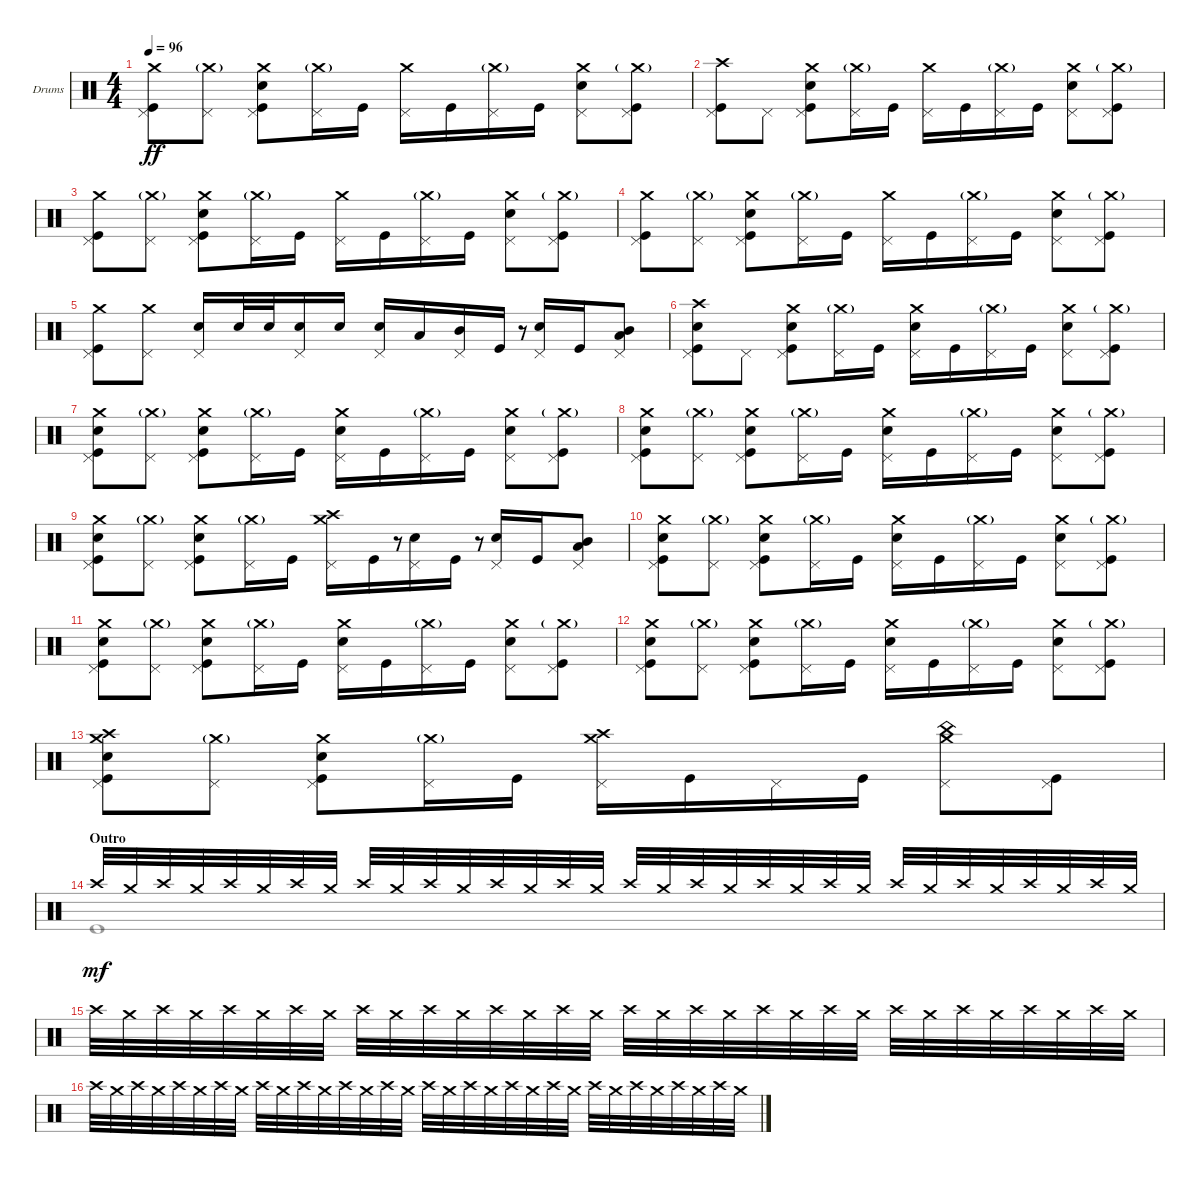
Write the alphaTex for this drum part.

\defaultSystemsLayout 4
\bracketExtendMode groupsimilarinstruments
\firstSystemTrackNameOrientation horizontal
\otherSystemsTrackNameOrientation horizontal
\track ("Howard" "Drums") {instrument percussion}
\staff {score}
\articulation defaults
\voice
\ts (4 4)
\tempo 96
\clef neutral
\ks c
("Pedal Hi-Hat (hit)" "Kick (hit)" "Crash medium (hit)").8{dy ff} ("Pedal Hi-Hat (hit)" "Crash medium (hit)"{g}).8 ("Pedal Hi-Hat (hit)" "Snare (hit) 2" "Kick (hit)" "Crash medium (hit)").8 ("Pedal Hi-Hat (hit)" "Crash medium (hit)"{g}).16 "Kick (hit)".16 ("Pedal Hi-Hat (hit)" "Crash medium (hit)").16 "Kick (hit)".16 ("Pedal Hi-Hat (hit)" "Crash medium (hit)"{g}).16 "Kick (hit)".16 ("Pedal Hi-Hat (hit)" "Snare (hit) 2" "Crash medium (hit)").8 ("Pedal Hi-Hat (hit)" "Crash medium (hit)"{g} "Kick (hit)").8 |
("Pedal Hi-Hat (hit)" "Kick (hit)" "Crash high (hit)").8 "Pedal Hi-Hat (hit)".8 ("Pedal Hi-Hat (hit)" "Snare (hit) 2" "Kick (hit)" "Crash medium (hit)").8 ("Pedal Hi-Hat (hit)" "Crash medium (hit)"{g}).16 "Kick (hit)".16 ("Pedal Hi-Hat (hit)" "Crash medium (hit)").16 "Kick (hit)".16 ("Pedal Hi-Hat (hit)" "Crash medium (hit)"{g}).16 "Kick (hit)".16 ("Pedal Hi-Hat (hit)" "Snare (hit) 2" "Crash medium (hit)").8 ("Pedal Hi-Hat (hit)" "Crash medium (hit)"{g} "Kick (hit)").8 |
("Pedal Hi-Hat (hit)" "Kick (hit)" "Crash medium (hit)").8 ("Pedal Hi-Hat (hit)" "Crash medium (hit)"{g}).8 ("Pedal Hi-Hat (hit)" "Snare (hit) 2" "Kick (hit)" "Crash medium (hit)").8 ("Pedal Hi-Hat (hit)" "Crash medium (hit)"{g}).16 "Kick (hit)".16 ("Pedal Hi-Hat (hit)" "Crash medium (hit)").16 "Kick (hit)".16 ("Pedal Hi-Hat (hit)" "Crash medium (hit)"{g}).16 "Kick (hit)".16 ("Pedal Hi-Hat (hit)" "Snare (hit) 2" "Crash medium (hit)").8 ("Pedal Hi-Hat (hit)" "Crash medium (hit)"{g} "Kick (hit)").8 |
("Pedal Hi-Hat (hit)" "Kick (hit)" "Crash medium (hit)").8 ("Pedal Hi-Hat (hit)" "Crash medium (hit)"{g}).8 ("Pedal Hi-Hat (hit)" "Snare (hit) 2" "Kick (hit)" "Crash medium (hit)").8 ("Pedal Hi-Hat (hit)" "Crash medium (hit)"{g}).16 "Kick (hit)".16 ("Pedal Hi-Hat (hit)" "Crash medium (hit)").16 "Kick (hit)".16 ("Pedal Hi-Hat (hit)" "Crash medium (hit)"{g}).16 "Kick (hit)".16 ("Pedal Hi-Hat (hit)" "Snare (hit) 2" "Crash medium (hit)").8 ("Pedal Hi-Hat (hit)" "Crash medium (hit)"{g} "Kick (hit)").8 |
("Crash medium (hit)" "Pedal Hi-Hat (hit)" "Kick (hit)").8 ("Pedal Hi-Hat (hit)" "Crash medium (hit)").8 ("Snare (hit) 2" "Pedal Hi-Hat (hit)").16 "Snare (hit) 2".32 "Snare (hit) 2".32 ("Snare (hit) 2" "Pedal Hi-Hat (hit)").16 "Snare (hit) 2".16 ("Snare (hit) 2" "Pedal Hi-Hat (hit)").16 "Low Tom (hit)".16 ("Mid Tom (hit)" "Pedal Hi-Hat (hit)").16 "Kick (hit)".16 r.8{gr} ("Snare (hit) 2" "Pedal Hi-Hat (hit)").16 "Kick (hit)".16 ("Low Tom (hit)" "Mid Tom (hit)" "Pedal Hi-Hat (hit)").8 |
("Pedal Hi-Hat (hit)" "Kick (hit)" "Crash high (hit)" "Snare (hit) 2").8 "Pedal Hi-Hat (hit)".8 ("Pedal Hi-Hat (hit)" "Snare (hit) 2" "Kick (hit)" "Crash medium (hit)").8 ("Pedal Hi-Hat (hit)" "Crash medium (hit)"{g}).16 "Kick (hit)".16 ("Pedal Hi-Hat (hit)" "Crash medium (hit)" "Snare (hit) 2").16 "Kick (hit)".16 ("Pedal Hi-Hat (hit)" "Crash medium (hit)"{g}).16 "Kick (hit)".16 ("Pedal Hi-Hat (hit)" "Snare (hit) 2" "Crash medium (hit)").8 ("Pedal Hi-Hat (hit)" "Crash medium (hit)"{g} "Kick (hit)").8 |
("Pedal Hi-Hat (hit)" "Kick (hit)" "Snare (hit) 2" "Crash medium (hit)").8 ("Pedal Hi-Hat (hit)" "Crash medium (hit)"{g}).8 ("Pedal Hi-Hat (hit)" "Snare (hit) 2" "Kick (hit)" "Crash medium (hit)").8 ("Pedal Hi-Hat (hit)" "Crash medium (hit)"{g}).16 "Kick (hit)".16 ("Pedal Hi-Hat (hit)" "Crash medium (hit)" "Snare (hit) 2").16 "Kick (hit)".16 ("Pedal Hi-Hat (hit)" "Crash medium (hit)"{g}).16 "Kick (hit)".16 ("Pedal Hi-Hat (hit)" "Snare (hit) 2" "Crash medium (hit)").8 ("Pedal Hi-Hat (hit)" "Crash medium (hit)"{g} "Kick (hit)").8 |
("Pedal Hi-Hat (hit)" "Kick (hit)" "Snare (hit) 2" "Crash medium (hit)").8 ("Pedal Hi-Hat (hit)" "Crash medium (hit)"{g}).8 ("Pedal Hi-Hat (hit)" "Snare (hit) 2" "Kick (hit)" "Crash medium (hit)").8 ("Pedal Hi-Hat (hit)" "Crash medium (hit)"{g}).16 "Kick (hit)".16 ("Pedal Hi-Hat (hit)" "Crash medium (hit)" "Snare (hit) 2").16 "Kick (hit)".16 ("Pedal Hi-Hat (hit)" "Crash medium (hit)"{g}).16 "Kick (hit)".16 ("Pedal Hi-Hat (hit)" "Snare (hit) 2" "Crash medium (hit)").8 ("Pedal Hi-Hat (hit)" "Crash medium (hit)"{g} "Kick (hit)").8 |
("Pedal Hi-Hat (hit)" "Kick (hit)" "Snare (hit) 2" "Crash medium (hit)").8 ("Pedal Hi-Hat (hit)" "Crash medium (hit)"{g}).8 ("Pedal Hi-Hat (hit)" "Snare (hit) 2" "Kick (hit)" "Crash medium (hit)").8 ("Pedal Hi-Hat (hit)" "Crash medium (hit)"{g}).16 "Kick (hit)".16 ("Pedal Hi-Hat (hit)" "Crash medium (hit)" "Crash high (hit)").16 "Kick (hit)".16 r.8{gr} ("Snare (hit) 2" "Pedal Hi-Hat (hit)").16 "Kick (hit)".16 r.8{gr} ("Snare (hit) 2" "Pedal Hi-Hat (hit)").16 "Kick (hit)".16 ("Low Tom (hit)" "Pedal Hi-Hat (hit)" "Mid Tom (hit)").8 |
("Pedal Hi-Hat (hit)" "Kick (hit)" "Snare (hit) 2" "Crash medium (hit)").8 ("Pedal Hi-Hat (hit)" "Crash medium (hit)"{g}).8 ("Pedal Hi-Hat (hit)" "Snare (hit) 2" "Kick (hit)" "Crash medium (hit)").8 ("Pedal Hi-Hat (hit)" "Crash medium (hit)"{g}).16 "Kick (hit)".16 ("Pedal Hi-Hat (hit)" "Crash medium (hit)" "Snare (hit) 2").16 "Kick (hit)".16 ("Pedal Hi-Hat (hit)" "Crash medium (hit)"{g}).16 "Kick (hit)".16 ("Pedal Hi-Hat (hit)" "Snare (hit) 2" "Crash medium (hit)").8 ("Pedal Hi-Hat (hit)" "Crash medium (hit)"{g} "Kick (hit)").8 |
("Pedal Hi-Hat (hit)" "Kick (hit)" "Snare (hit) 2" "Crash medium (hit)").8 ("Pedal Hi-Hat (hit)" "Crash medium (hit)"{g}).8 ("Pedal Hi-Hat (hit)" "Snare (hit) 2" "Kick (hit)" "Crash medium (hit)").8 ("Pedal Hi-Hat (hit)" "Crash medium (hit)"{g}).16 "Kick (hit)".16 ("Pedal Hi-Hat (hit)" "Crash medium (hit)" "Snare (hit) 2").16 "Kick (hit)".16 ("Pedal Hi-Hat (hit)" "Crash medium (hit)"{g}).16 "Kick (hit)".16 ("Pedal Hi-Hat (hit)" "Snare (hit) 2" "Crash medium (hit)").8 ("Pedal Hi-Hat (hit)" "Crash medium (hit)"{g} "Kick (hit)").8 |
("Pedal Hi-Hat (hit)" "Kick (hit)" "Snare (hit) 2" "Crash medium (hit)").8 ("Pedal Hi-Hat (hit)" "Crash medium (hit)"{g}).8 ("Pedal Hi-Hat (hit)" "Snare (hit) 2" "Kick (hit)" "Crash medium (hit)").8 ("Pedal Hi-Hat (hit)" "Crash medium (hit)"{g}).16 "Kick (hit)".16 ("Pedal Hi-Hat (hit)" "Crash medium (hit)" "Snare (hit) 2").16 "Kick (hit)".16 ("Pedal Hi-Hat (hit)" "Crash medium (hit)"{g}).16 "Kick (hit)".16 ("Pedal Hi-Hat (hit)" "Snare (hit) 2" "Crash medium (hit)").8 ("Pedal Hi-Hat (hit)" "Crash medium (hit)"{g} "Kick (hit)").8 |
("Pedal Hi-Hat (hit)" "Kick (hit)" "Snare (hit) 2" "Crash medium (hit)" "Crash high (hit)").8 ("Pedal Hi-Hat (hit)" "Crash medium (hit)"{g}).8 ("Pedal Hi-Hat (hit)" "Snare (hit) 2" "Kick (hit)" "Crash medium (hit)").8 ("Pedal Hi-Hat (hit)" "Crash medium (hit)"{g}).16 "Kick (hit)".16 ("Pedal Hi-Hat (hit)" "Crash medium (hit)" "Crash high (hit)").16 "Kick (hit)".16 "Pedal Hi-Hat (hit)".16 "Kick (hit)".16 ("Pedal Hi-Hat (hit)" "Crash medium (hit)" "China (hit)").8 ("Pedal Hi-Hat (hit)" "Kick (hit)").8 |
\section ("" "Outro")
"Crash high (hit)".32{dy mf} "Crash medium (hit)".32 "Crash high (hit)".32 "Crash medium (hit)".32 "Crash high (hit)".32 "Crash medium (hit)".32 "Crash high (hit)".32 "Crash medium (hit)".32 "Crash high (hit)".32 "Crash medium (hit)".32 "Crash high (hit)".32 "Crash medium (hit)".32 "Crash high (hit)".32 "Crash medium (hit)".32 "Crash high (hit)".32 "Crash medium (hit)".32 "Crash high (hit)".32 "Crash medium (hit)".32 "Crash high (hit)".32 "Crash medium (hit)".32 "Crash high (hit)".32 "Crash medium (hit)".32 "Crash high (hit)".32 "Crash medium (hit)".32 "Crash high (hit)".32 "Crash medium (hit)".32 "Crash high (hit)".32 "Crash medium (hit)".32 "Crash high (hit)".32 "Crash medium (hit)".32 "Crash high (hit)".32 "Crash medium (hit)".32 |
"Crash high (hit)".32 "Crash medium (hit)".32 "Crash high (hit)".32 "Crash medium (hit)".32 "Crash high (hit)".32 "Crash medium (hit)".32 "Crash high (hit)".32 "Crash medium (hit)".32 "Crash high (hit)".32 "Crash medium (hit)".32 "Crash high (hit)".32 "Crash medium (hit)".32 "Crash high (hit)".32 "Crash medium (hit)".32 "Crash high (hit)".32 "Crash medium (hit)".32 "Crash high (hit)".32 "Crash medium (hit)".32 "Crash high (hit)".32 "Crash medium (hit)".32 "Crash high (hit)".32 "Crash medium (hit)".32 "Crash high (hit)".32 "Crash medium (hit)".32 "Crash high (hit)".32 "Crash medium (hit)".32 "Crash high (hit)".32 "Crash medium (hit)".32 "Crash high (hit)".32 "Crash medium (hit)".32 "Crash high (hit)".32 "Crash medium (hit)".32 |
"Crash high (hit)".32 "Crash medium (hit)".32 "Crash high (hit)".32 "Crash medium (hit)".32 "Crash high (hit)".32 "Crash medium (hit)".32 "Crash high (hit)".32 "Crash medium (hit)".32 "Crash high (hit)".32 "Crash medium (hit)".32 "Crash high (hit)".32 "Crash medium (hit)".32 "Crash high (hit)".32 "Crash medium (hit)".32 "Crash high (hit)".32 "Crash medium (hit)".32 "Crash high (hit)".32 "Crash medium (hit)".32 "Crash high (hit)".32 "Crash medium (hit)".32 "Crash high (hit)".32 "Crash medium (hit)".32 "Crash high (hit)".32 "Crash medium (hit)".32 "Crash high (hit)".32 "Crash medium (hit)".32 "Crash high (hit)".32 "Crash medium (hit)".32 "Crash high (hit)".32 "Crash medium (hit)".32 "Crash high (hit)".32 "Crash medium (hit)".32
\voice
\clef neutral
\ottava regular
\simile none
\ks c
|
|
|
|
|
|
|
|
|
|
|
|
|
"Kick (hit)".1 |
|
